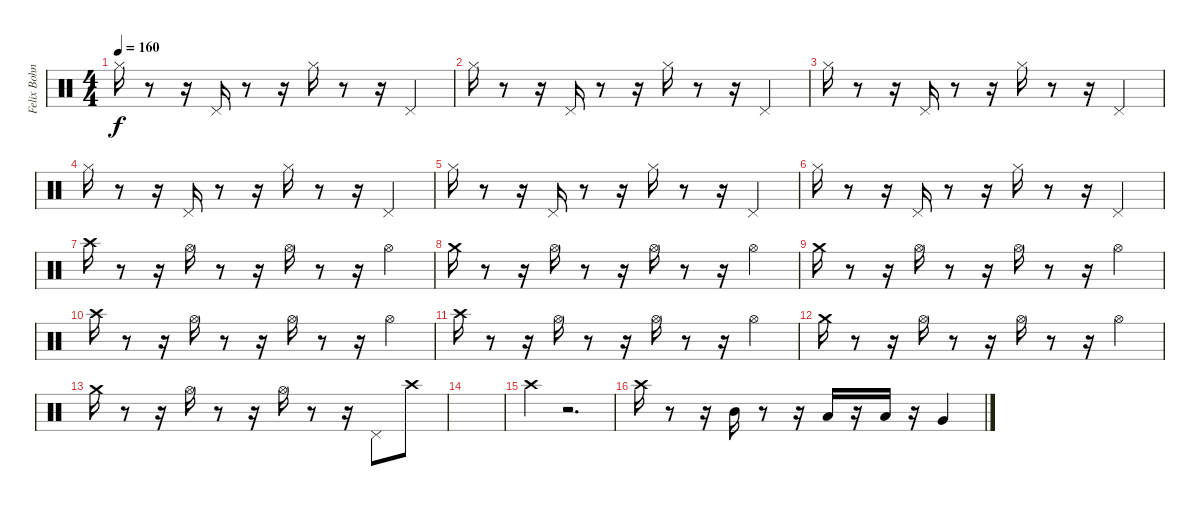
\track ("Felix Bohnke" "Felix Bohn") {instrument percussion}
\staff {score}
\articulation defaults
\ts (4 4)
\tempo 160
\clef neutral
\ks c "Hi-Hat (closed)".16{dy f}
r.8 r.16 "Pedal Hi-Hat (hit)".16 r.8 r.16 "Hi-Hat (closed)".16 r.8 r.16 "Pedal Hi-Hat (hit)".4 |
"Hi-Hat (closed)".16 r.8 r.16 "Pedal Hi-Hat (hit)".16 r.8 r.16 "Hi-Hat (closed)".16 r.8 r.16 "Pedal Hi-Hat (hit)".4 |
"Hi-Hat (closed)".16 r.8 r.16 "Pedal Hi-Hat (hit)".16 r.8 r.16 "Hi-Hat (closed)".16 r.8 r.16 "Pedal Hi-Hat (hit)".4 |
"Hi-Hat (closed)".16 r.8 r.16 "Pedal Hi-Hat (hit)".16 r.8 r.16 "Hi-Hat (closed)".16 r.8 r.16 "Pedal Hi-Hat (hit)".4 |
"Hi-Hat (closed)".16 r.8 r.16 "Pedal Hi-Hat (hit)".16 r.8 r.16 "Hi-Hat (closed)".16 r.8 r.16 "Pedal Hi-Hat (hit)".4 |
"Hi-Hat (closed)".16 r.8 r.16 "Pedal Hi-Hat (hit)".16 r.8 r.16 "Hi-Hat (closed)".16 r.8 r.16 "Pedal Hi-Hat (hit)".4 |
"Crash high (hit)".16 r.8 r.16 "Hi-Hat (open)".16 r.8 r.16 "Hi-Hat (open)".16 r.8 r.16 "Hi-Hat (open)".4 |
"Crash medium (hit)".16 r.8 r.16 "Hi-Hat (open)".16 r.8 r.16 "Hi-Hat (open)".16 r.8 r.16 "Hi-Hat (open)".4 |
"Crash medium (hit)".16 r.8 r.16 "Hi-Hat (open)".16 r.8 r.16 "Hi-Hat (open)".16 r.8 r.16 "Hi-Hat (open)".4 |
"Crash high (hit)".16 r.8 r.16 "Hi-Hat (open)".16 r.8 r.16 "Hi-Hat (open)".16 r.8 r.16 "Hi-Hat (open)".4 |
"Crash high (hit)".16 r.8 r.16 "Hi-Hat (open)".16 r.8 r.16 "Hi-Hat (open)".16 r.8 r.16 "Hi-Hat (open)".4 |
"Crash medium (hit)".16 r.8 r.16 "Hi-Hat (open)".16 r.8 r.16 "Hi-Hat (open)".16 r.8 r.16 "Hi-Hat (open)".4 |
"Crash medium (hit)".16 r.8 r.16 "Hi-Hat (open)".16 r.8 r.16 "Hi-Hat (open)".16 r.8 r.16 "Pedal Hi-Hat (hit)".8 "Crash high (hit)".8 |
|
"Crash high (hit)".4 r.2{d} |
"Crash high (hit)".16 r.8 r.16 "Mid Tom (hit)".16 r.8 r.16 "Low Tom (hit)".16 r.16 "Low Tom (hit)".16 r.16 "Very Low Tom (hit)".4
